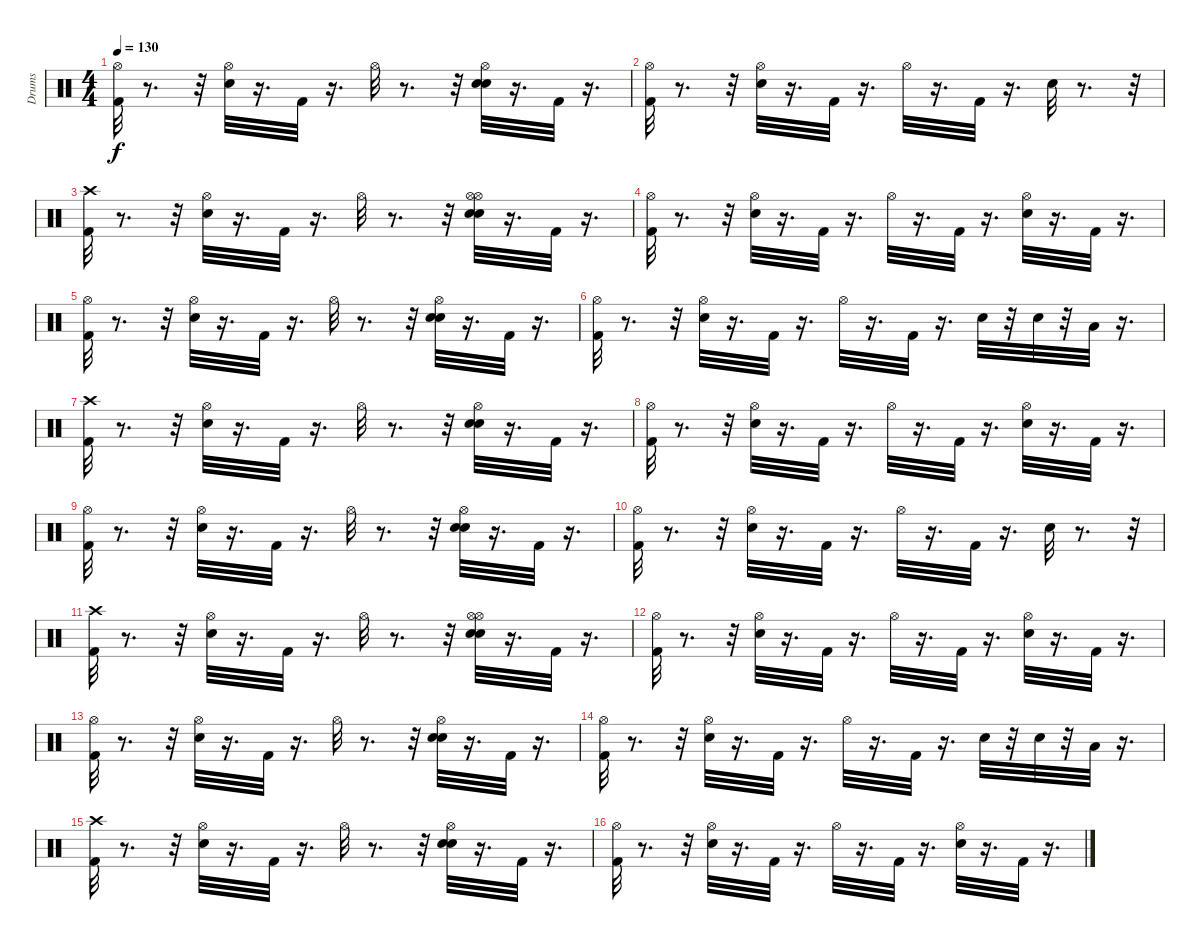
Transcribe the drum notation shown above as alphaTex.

\track ("Drums" "Drums") {instrument percussion}
\staff {score}
\articulation defaults
\ts (4 4)
\tempo 130
\clef neutral
\ks c
("Hi-Hat (open)" "Kick (hit) 2").32{dy f} r.8{d} r.32 ("Snare (hit) 2" "Hi-Hat (open)").32 r.16{d} "Kick (hit) 2".32 r.16{d} "Hi-Hat (open)".32 r.8{d} r.32 ("Snare (hit) 2" "Snare (hit) 2" "Hi-Hat (open)").32 r.16{d} "Kick (hit) 2".32 r.16{d} |
("Hi-Hat (open)" "Kick (hit) 2").32 r.8{d} r.32 ("Snare (hit) 2" "Hi-Hat (open)").32 r.16{d} "Kick (hit) 2".32 r.16{d} "Hi-Hat (open)".32 r.16{d} "Kick (hit) 2".32 r.16{d} "Snare (hit) 2".32 r.8{d} r.32 |
("Kick (hit) 2" "Crash high (hit)").32 r.8{d} r.32 ("Snare (hit) 2" "Hi-Hat (open)").32 r.16{d} "Kick (hit) 2".32 r.16{d} "Hi-Hat (open)".32 r.8{d} r.32 ("Snare (hit) 2" "Hi-Hat (open)" "Snare (hit) 2" "Hi-Hat (open)").32 r.16{d} "Kick (hit) 2".32 r.16{d} |
("Kick (hit) 2" "Hi-Hat (open)").32 r.8{d} r.32 ("Snare (hit) 2" "Hi-Hat (open)").32 r.16{d} "Kick (hit) 2".32 r.16{d} "Hi-Hat (open)".32 r.16{d} "Kick (hit) 2".32 r.16{d} ("Snare (hit) 2" "Hi-Hat (open)").32 r.16{d} "Kick (hit) 2".32 r.16{d} |
("Hi-Hat (open)" "Kick (hit) 2").32 r.8{d} r.32 ("Snare (hit) 2" "Hi-Hat (open)").32 r.16{d} "Kick (hit) 2".32 r.16{d} "Hi-Hat (open)".32 r.8{d} r.32 ("Snare (hit) 2" "Snare (hit) 2" "Hi-Hat (open)").32 r.16{d} "Kick (hit) 2".32 r.16{d} |
("Kick (hit) 2" "Hi-Hat (open)").32 r.8{d} r.32 ("Snare (hit) 2" "Hi-Hat (open)").32 r.16{d} "Kick (hit) 2".32 r.16{d} "Hi-Hat (open)".32 r.16{d} "Kick (hit) 2".32 r.16{d} "Snare (hit) 2".32 r.32 "Snare (hit) 2".32 r.32 "Low Floor Tom (hit)".32 r.16{d} |
("Kick (hit) 2" "Crash high (hit)").32 r.8{d} r.32 ("Snare (hit) 2" "Hi-Hat (open)").32 r.16{d} "Kick (hit) 2".32 r.16{d} "Hi-Hat (open)".32 r.8{d} r.32 ("Snare (hit) 2" "Snare (hit) 2" "Hi-Hat (open)").32 r.16{d} "Kick (hit) 2".32 r.16{d} |
("Kick (hit) 2" "Hi-Hat (open)").32 r.8{d} r.32 ("Snare (hit) 2" "Hi-Hat (open)").32 r.16{d} "Kick (hit) 2".32 r.16{d} "Hi-Hat (open)".32 r.16{d} "Kick (hit) 2".32 r.16{d} ("Hi-Hat (open)" "Snare (hit) 2").32 r.16{d} "Kick (hit) 2".32 r.16{d} |
("Hi-Hat (open)" "Kick (hit) 2").32 r.8{d} r.32 ("Snare (hit) 2" "Hi-Hat (open)").32 r.16{d} "Kick (hit) 2".32 r.16{d} "Hi-Hat (open)".32 r.8{d} r.32 ("Snare (hit) 2" "Hi-Hat (open)" "Snare (hit) 2").32 r.16{d} "Kick (hit) 2".32 r.16{d} |
("Hi-Hat (open)" "Kick (hit) 2").32 r.8{d} r.32 ("Snare (hit) 2" "Hi-Hat (open)").32 r.16{d} "Kick (hit) 2".32 r.16{d} "Hi-Hat (open)".32 r.16{d} "Kick (hit) 2".32 r.16{d} "Snare (hit) 2".32 r.8{d} r.32 |
("Kick (hit) 2" "Crash high (hit)").32 r.8{d} r.32 ("Snare (hit) 2" "Hi-Hat (open)").32 r.16{d} "Kick (hit) 2".32 r.16{d} "Hi-Hat (open)".32 r.8{d} r.32 ("Snare (hit) 2" "Hi-Hat (open)" "Snare (hit) 2" "Hi-Hat (open)").32 r.16{d} "Kick (hit) 2".32 r.16{d} |
("Kick (hit) 2" "Hi-Hat (open)").32 r.8{d} r.32 ("Snare (hit) 2" "Hi-Hat (open)").32 r.16{d} "Kick (hit) 2".32 r.16{d} "Hi-Hat (open)".32 r.16{d} "Kick (hit) 2".32 r.16{d} ("Snare (hit) 2" "Hi-Hat (open)").32 r.16{d} "Kick (hit) 2".32 r.16{d} |
("Hi-Hat (open)" "Kick (hit) 2").32 r.8{d} r.32 ("Snare (hit) 2" "Hi-Hat (open)").32 r.16{d} "Kick (hit) 2".32 r.16{d} "Hi-Hat (open)".32 r.8{d} r.32 ("Snare (hit) 2" "Hi-Hat (open)" "Snare (hit) 2").32 r.16{d} "Kick (hit) 2".32 r.16{d} |
("Kick (hit) 2" "Hi-Hat (open)").32 r.8{d} r.32 ("Snare (hit) 2" "Hi-Hat (open)").32 r.16{d} "Kick (hit) 2".32 r.16{d} "Hi-Hat (open)".32 r.16{d} "Kick (hit) 2".32 r.16{d} "Snare (hit) 2".32 r.32 "Snare (hit) 2".32 r.32 "Low Floor Tom (hit)".32 r.16{d} |
("Kick (hit) 2" "Crash high (hit)").32 r.8{d} r.32 ("Snare (hit) 2" "Hi-Hat (open)").32 r.16{d} "Kick (hit) 2".32 r.16{d} "Hi-Hat (open)".32 r.8{d} r.32 ("Snare (hit) 2" "Snare (hit) 2" "Hi-Hat (open)").32 r.16{d} "Kick (hit) 2".32 r.16{d} |
("Kick (hit) 2" "Hi-Hat (open)").32 r.8{d} r.32 ("Snare (hit) 2" "Hi-Hat (open)").32 r.16{d} "Kick (hit) 2".32 r.16{d} "Hi-Hat (open)".32 r.16{d} "Kick (hit) 2".32 r.16{d} ("Hi-Hat (open)" "Snare (hit) 2").32 r.16{d} "Kick (hit) 2".32 r.16{d}
